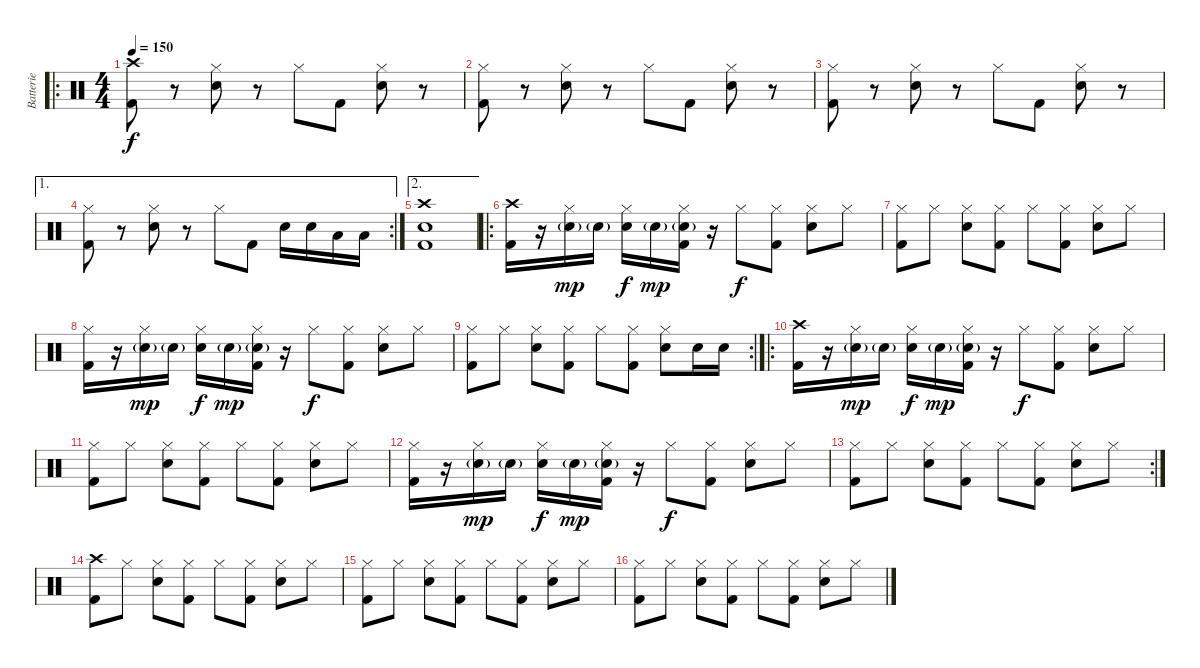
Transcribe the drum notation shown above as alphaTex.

\track ("Batterie" "Batterie") {instrument percussion}
\staff {score}
\articulation defaults
\ro
\ts (4 4)
\tempo 150
\clef neutral
\ks c
("Crash high (hit)" "Kick (hit) 2").8{dy f} r.8 ("Hi-Hat (closed)" "Snare (hit) 2").8 r.8 "Hi-Hat (closed)".8 "Kick (hit) 2".8 ("Hi-Hat (closed)" "Snare (hit) 2").8 r.8 |
("Hi-Hat (closed)" "Kick (hit) 2").8 r.8 ("Hi-Hat (closed)" "Snare (hit) 2").8 r.8 "Hi-Hat (closed)".8 "Kick (hit) 2".8 ("Hi-Hat (closed)" "Snare (hit) 2").8 r.8 |
("Hi-Hat (closed)" "Kick (hit) 2").8 r.8 ("Hi-Hat (closed)" "Snare (hit) 2").8 r.8 "Hi-Hat (closed)".8 "Kick (hit) 2".8 ("Hi-Hat (closed)" "Snare (hit) 2").8 r.8 |
\ae 1
\rc 2
("Hi-Hat (closed)" "Kick (hit) 2").8 r.8 ("Hi-Hat (closed)" "Snare (hit) 2").8 r.8 "Hi-Hat (closed)".8 "Kick (hit) 2".8 "Snare (hit) 2".16 "Snare (hit) 2".16 "Low Floor Tom (hit)".16 "Low Floor Tom (hit)".16 |
\ae 2
("Crash high (hit)" "Snare (hit) 2" "Kick (hit) 2").1 |
\ro
("Crash high (hit)" "Kick (hit) 2").16 r.16 ("Hi-Hat (closed)" "Snare (hit) 2"{g}).16{dy mp} "Snare (hit) 2"{g}.16 ("Hi-Hat (closed)" "Snare (hit) 2").16{dy f} "Snare (hit) 2"{g}.16{dy mp} ("Hi-Hat (closed)" "Snare (hit) 2"{g} "Kick (hit) 2").16 r.16 "Hi-Hat (closed)".8{dy f} ("Hi-Hat (closed)" "Kick (hit) 2").8 ("Hi-Hat (closed)" "Snare (hit) 2").8 "Hi-Hat (closed)".8 |
("Hi-Hat (closed)" "Kick (hit) 2").8 "Hi-Hat (closed)".8 ("Hi-Hat (closed)" "Snare (hit) 2").8 ("Hi-Hat (closed)" "Kick (hit) 2").8 "Hi-Hat (closed)".8 ("Hi-Hat (closed)" "Kick (hit) 2").8 ("Hi-Hat (closed)" "Snare (hit) 2").8 "Hi-Hat (closed)".8 |
("Hi-Hat (closed)" "Kick (hit) 2").16 r.16 ("Hi-Hat (closed)" "Snare (hit) 2"{g}).16{dy mp} "Snare (hit) 2"{g}.16 ("Hi-Hat (closed)" "Snare (hit) 2").16{dy f} "Snare (hit) 2"{g}.16{dy mp} ("Hi-Hat (closed)" "Snare (hit) 2"{g} "Kick (hit) 2").16 r.16 "Hi-Hat (closed)".8{dy f} ("Hi-Hat (closed)" "Kick (hit) 2").8 ("Hi-Hat (closed)" "Snare (hit) 2").8 "Hi-Hat (closed)".8 |
\rc 2
("Hi-Hat (closed)" "Kick (hit) 2").8 "Hi-Hat (closed)".8 ("Hi-Hat (closed)" "Snare (hit) 2").8 ("Hi-Hat (closed)" "Kick (hit) 2").8 "Hi-Hat (closed)".8 ("Hi-Hat (closed)" "Kick (hit) 2").8 ("Hi-Hat (closed)" "Snare (hit) 2").8 "Snare (hit) 2".16 "Snare (hit) 2".16 |
\ro
("Crash high (hit)" "Kick (hit) 2").16 r.16 ("Hi-Hat (closed)" "Snare (hit) 2"{g}).16{dy mp} "Snare (hit) 2"{g}.16 ("Hi-Hat (closed)" "Snare (hit) 2").16{dy f} "Snare (hit) 2"{g}.16{dy mp} ("Hi-Hat (closed)" "Snare (hit) 2"{g} "Kick (hit) 2").16 r.16 "Hi-Hat (closed)".8{dy f} ("Hi-Hat (closed)" "Kick (hit) 2").8 ("Hi-Hat (closed)" "Snare (hit) 2").8 "Hi-Hat (closed)".8 |
("Hi-Hat (closed)" "Kick (hit) 2").8 "Hi-Hat (closed)".8 ("Hi-Hat (closed)" "Snare (hit) 2").8 ("Hi-Hat (closed)" "Kick (hit) 2").8 "Hi-Hat (closed)".8 ("Hi-Hat (closed)" "Kick (hit) 2").8 ("Hi-Hat (closed)" "Snare (hit) 2").8 "Hi-Hat (closed)".8 |
("Hi-Hat (closed)" "Kick (hit) 2").16 r.16 ("Hi-Hat (closed)" "Snare (hit) 2"{g}).16{dy mp} "Snare (hit) 2"{g}.16 ("Hi-Hat (closed)" "Snare (hit) 2").16{dy f} "Snare (hit) 2"{g}.16{dy mp} ("Hi-Hat (closed)" "Snare (hit) 2"{g} "Kick (hit) 2").16 r.16 "Hi-Hat (closed)".8{dy f} ("Hi-Hat (closed)" "Kick (hit) 2").8 ("Hi-Hat (closed)" "Snare (hit) 2").8 "Hi-Hat (closed)".8 |
\rc 2
("Hi-Hat (closed)" "Kick (hit) 2").8 "Hi-Hat (closed)".8 ("Hi-Hat (closed)" "Snare (hit) 2").8 ("Hi-Hat (closed)" "Kick (hit) 2").8 "Hi-Hat (closed)".8 ("Hi-Hat (closed)" "Kick (hit) 2").8 ("Hi-Hat (closed)" "Snare (hit) 2").8 "Hi-Hat (closed)".8 |
("Crash high (hit)" "Kick (hit) 2").8 "Hi-Hat (closed)".8 ("Hi-Hat (closed)" "Snare (hit) 2").8 ("Hi-Hat (closed)" "Kick (hit) 2").8 "Hi-Hat (closed)".8 ("Hi-Hat (closed)" "Kick (hit) 2").8 ("Hi-Hat (closed)" "Snare (hit) 2").8 "Hi-Hat (closed)".8 |
("Hi-Hat (closed)" "Kick (hit) 2").8 "Hi-Hat (closed)".8 ("Hi-Hat (closed)" "Snare (hit) 2").8 ("Hi-Hat (closed)" "Kick (hit) 2").8 "Hi-Hat (closed)".8 ("Hi-Hat (closed)" "Kick (hit) 2").8 ("Hi-Hat (closed)" "Snare (hit) 2").8 "Hi-Hat (closed)".8 |
("Hi-Hat (closed)" "Kick (hit) 2").8 "Hi-Hat (closed)".8 ("Hi-Hat (closed)" "Snare (hit) 2").8 ("Hi-Hat (closed)" "Kick (hit) 2").8 "Hi-Hat (closed)".8 ("Hi-Hat (closed)" "Kick (hit) 2").8 ("Hi-Hat (closed)" "Snare (hit) 2").8 "Hi-Hat (closed)".8
